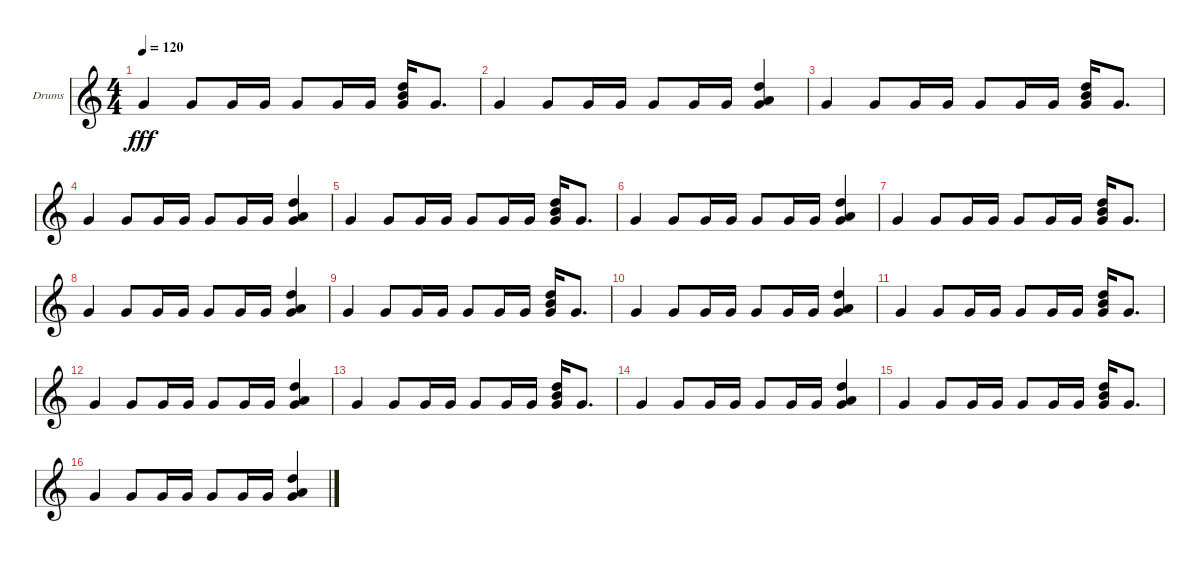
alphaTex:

\defaultSystemsLayout 4
\bracketExtendMode groupsimilarinstruments
\firstSystemTrackNameOrientation horizontal
\otherSystemsTrackNameOrientation horizontal
\track ("Drumkit" "Drums") {instrument percussion}
\staff {score}
\articulation defaults
\ts (4 4)
\tempo 120
\clef g2
\ks c "Very Low Tom (hit)".4{dy fff} "Very Low Tom (hit)".8 "Very Low Tom (hit)".16 "Very Low Tom (hit)".16 "Very Low Tom (hit)".8 "Very Low Tom (hit)".16 "Very Low Tom (hit)".16
("Very Low Tom (hit)" "High Tom (hit)" "Mid Tom (hit)").16 "Very Low Tom (hit)".8{d} |
"Very Low Tom (hit)".4 "Very Low Tom (hit)".8 "Very Low Tom (hit)".16 "Very Low Tom (hit)".16 "Very Low Tom (hit)".8 "Very Low Tom (hit)".16 "Very Low Tom (hit)".16 ("Very Low Tom (hit)" "Low Tom (hit)" "High Tom (hit)").4 |
"Very Low Tom (hit)".4 "Very Low Tom (hit)".8 "Very Low Tom (hit)".16 "Very Low Tom (hit)".16 "Very Low Tom (hit)".8 "Very Low Tom (hit)".16 "Very Low Tom (hit)".16 ("Very Low Tom (hit)" "High Tom (hit)" "Mid Tom (hit)").16 "Very Low Tom (hit)".8{d} |
"Very Low Tom (hit)".4 "Very Low Tom (hit)".8 "Very Low Tom (hit)".16 "Very Low Tom (hit)".16 "Very Low Tom (hit)".8 "Very Low Tom (hit)".16 "Very Low Tom (hit)".16 ("Very Low Tom (hit)" "Low Tom (hit)" "High Tom (hit)").4 |
"Very Low Tom (hit)".4 "Very Low Tom (hit)".8 "Very Low Tom (hit)".16 "Very Low Tom (hit)".16 "Very Low Tom (hit)".8 "Very Low Tom (hit)".16 "Very Low Tom (hit)".16 ("Very Low Tom (hit)" "High Tom (hit)" "Mid Tom (hit)").16 "Very Low Tom (hit)".8{d} |
"Very Low Tom (hit)".4 "Very Low Tom (hit)".8 "Very Low Tom (hit)".16 "Very Low Tom (hit)".16 "Very Low Tom (hit)".8 "Very Low Tom (hit)".16 "Very Low Tom (hit)".16 ("Very Low Tom (hit)" "Low Tom (hit)" "High Tom (hit)").4 |
"Very Low Tom (hit)".4 "Very Low Tom (hit)".8 "Very Low Tom (hit)".16 "Very Low Tom (hit)".16 "Very Low Tom (hit)".8 "Very Low Tom (hit)".16 "Very Low Tom (hit)".16 ("Very Low Tom (hit)" "High Tom (hit)" "Mid Tom (hit)").16 "Very Low Tom (hit)".8{d} |
"Very Low Tom (hit)".4 "Very Low Tom (hit)".8 "Very Low Tom (hit)".16 "Very Low Tom (hit)".16 "Very Low Tom (hit)".8 "Very Low Tom (hit)".16 "Very Low Tom (hit)".16 ("Very Low Tom (hit)" "Low Tom (hit)" "High Tom (hit)").4 |
"Very Low Tom (hit)".4 "Very Low Tom (hit)".8 "Very Low Tom (hit)".16 "Very Low Tom (hit)".16 "Very Low Tom (hit)".8 "Very Low Tom (hit)".16 "Very Low Tom (hit)".16 ("Very Low Tom (hit)" "High Tom (hit)" "Mid Tom (hit)").16 "Very Low Tom (hit)".8{d} |
"Very Low Tom (hit)".4 "Very Low Tom (hit)".8 "Very Low Tom (hit)".16 "Very Low Tom (hit)".16 "Very Low Tom (hit)".8 "Very Low Tom (hit)".16 "Very Low Tom (hit)".16 ("Very Low Tom (hit)" "Low Tom (hit)" "High Tom (hit)").4 |
"Very Low Tom (hit)".4 "Very Low Tom (hit)".8 "Very Low Tom (hit)".16 "Very Low Tom (hit)".16 "Very Low Tom (hit)".8 "Very Low Tom (hit)".16 "Very Low Tom (hit)".16 ("Very Low Tom (hit)" "High Tom (hit)" "Mid Tom (hit)").16 "Very Low Tom (hit)".8{d} |
"Very Low Tom (hit)".4 "Very Low Tom (hit)".8 "Very Low Tom (hit)".16 "Very Low Tom (hit)".16 "Very Low Tom (hit)".8 "Very Low Tom (hit)".16 "Very Low Tom (hit)".16 ("Very Low Tom (hit)" "Low Tom (hit)" "High Tom (hit)").4 |
"Very Low Tom (hit)".4 "Very Low Tom (hit)".8 "Very Low Tom (hit)".16 "Very Low Tom (hit)".16 "Very Low Tom (hit)".8 "Very Low Tom (hit)".16 "Very Low Tom (hit)".16 ("Very Low Tom (hit)" "High Tom (hit)" "Mid Tom (hit)").16 "Very Low Tom (hit)".8{d} |
"Very Low Tom (hit)".4 "Very Low Tom (hit)".8 "Very Low Tom (hit)".16 "Very Low Tom (hit)".16 "Very Low Tom (hit)".8 "Very Low Tom (hit)".16 "Very Low Tom (hit)".16 ("Very Low Tom (hit)" "Low Tom (hit)" "High Tom (hit)").4 |
"Very Low Tom (hit)".4 "Very Low Tom (hit)".8 "Very Low Tom (hit)".16 "Very Low Tom (hit)".16 "Very Low Tom (hit)".8 "Very Low Tom (hit)".16 "Very Low Tom (hit)".16 ("Very Low Tom (hit)" "High Tom (hit)" "Mid Tom (hit)").16 "Very Low Tom (hit)".8{d} |
"Very Low Tom (hit)".4 "Very Low Tom (hit)".8 "Very Low Tom (hit)".16 "Very Low Tom (hit)".16 "Very Low Tom (hit)".8 "Very Low Tom (hit)".16 "Very Low Tom (hit)".16 ("Very Low Tom (hit)" "Low Tom (hit)" "High Tom (hit)").4
